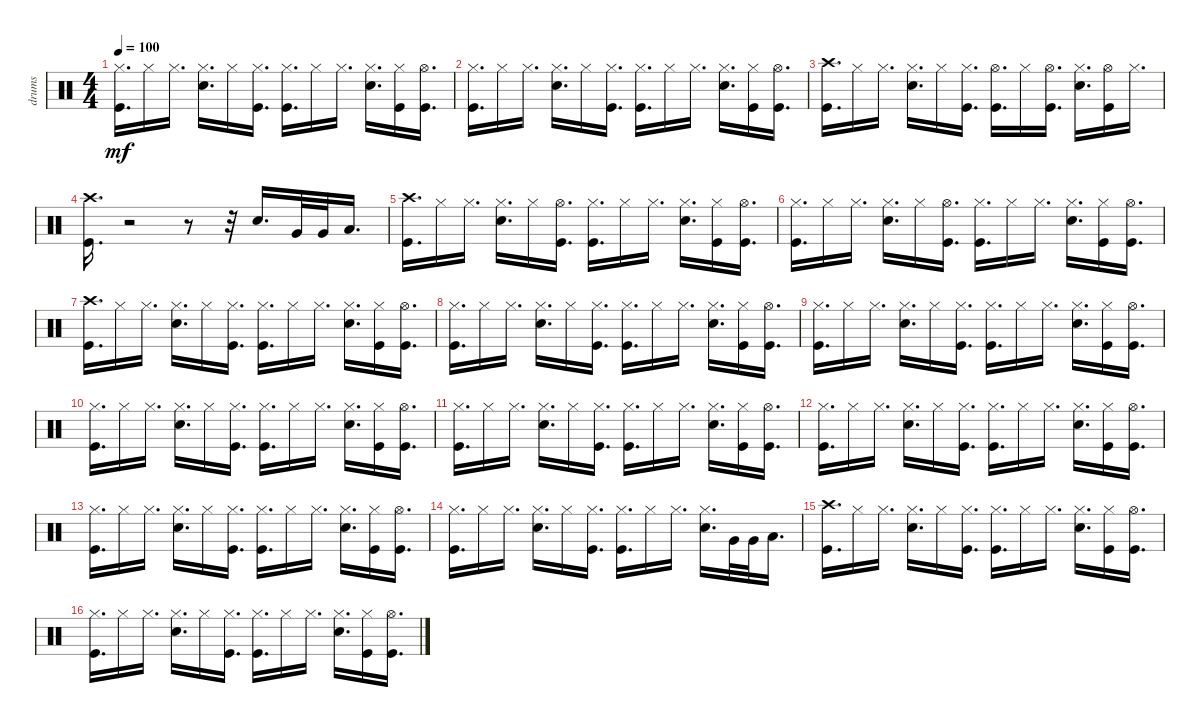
\track ("drums" "drums") {instrument percussion}
\staff {score}
\articulation defaults
\ts (4 4)
\tempo 100
\clef neutral
\ks c
("Hi-Hat (closed)" "Kick (hit)").16{d dy mf} "Hi-Hat (closed)".16 "Hi-Hat (closed)".16{d} ("Snare (hit) 2" "Hi-Hat (closed)").16{d} "Hi-Hat (closed)".16 ("Kick (hit)" "Hi-Hat (closed)").16{d} ("Kick (hit)" "Hi-Hat (closed)").16{d} "Hi-Hat (closed)".16 "Hi-Hat (closed)".16{d} ("Snare (hit) 2" "Hi-Hat (closed)").16{d} ("Kick (hit)" "Hi-Hat (closed)").16 ("Hi-Hat (open)" "Kick (hit)").16{d} |
("Hi-Hat (closed)" "Kick (hit)").16{d} "Hi-Hat (closed)".16 "Hi-Hat (closed)".16{d} ("Snare (hit) 2" "Hi-Hat (closed)").16{d} "Hi-Hat (closed)".16 ("Kick (hit)" "Hi-Hat (closed)").16{d} ("Kick (hit)" "Hi-Hat (closed)").16{d} "Hi-Hat (closed)".16 "Hi-Hat (closed)".16{d} ("Snare (hit) 2" "Hi-Hat (closed)").16{d} ("Kick (hit)" "Hi-Hat (closed)").16 ("Hi-Hat (open)" "Kick (hit)").16{d} |
("Crash high (hit)" "Kick (hit)").16{d} "Hi-Hat (closed)".16 "Hi-Hat (closed)".16{d} ("Snare (hit) 2" "Hi-Hat (closed)").16{d} "Hi-Hat (closed)".16 ("Kick (hit)" "Hi-Hat (closed)").16{d} ("Hi-Hat (open)" "Kick (hit)").16{d} "Hi-Hat (closed)".16 ("Hi-Hat (open)" "Kick (hit)").16{d} ("Snare (hit) 2" "Hi-Hat (closed)").16{d} ("Hi-Hat (open)" "Kick (hit)").16 "Hi-Hat (closed)".16{d} |
("Crash high (hit)" "Kick (hit)").16{d} r.2 r.8 r.32 "Snare (hit) 2".16{d} "Very Low Tom (hit)".32 "Very Low Tom (hit)".32 "Low Floor Tom (hit)".16{d} |
("Crash high (hit)" "Kick (hit)").16{d} "Hi-Hat (closed)".16 "Hi-Hat (closed)".16{d} ("Snare (hit) 2" "Hi-Hat (closed)").16{d} "Hi-Hat (closed)".16 ("Hi-Hat (open)" "Kick (hit)").16{d} ("Kick (hit)" "Hi-Hat (closed)").16{d} "Hi-Hat (closed)".16 "Hi-Hat (closed)".16{d} ("Snare (hit) 2" "Hi-Hat (closed)").16{d} ("Kick (hit)" "Hi-Hat (closed)").16 ("Hi-Hat (open)" "Kick (hit)").16{d} |
("Hi-Hat (closed)" "Kick (hit)").16{d} "Hi-Hat (closed)".16 "Hi-Hat (closed)".16{d} ("Snare (hit) 2" "Hi-Hat (closed)").16{d} "Hi-Hat (closed)".16 ("Hi-Hat (open)" "Kick (hit)").16{d} ("Kick (hit)" "Hi-Hat (closed)").16{d} "Hi-Hat (closed)".16 "Hi-Hat (closed)".16{d} ("Snare (hit) 2" "Hi-Hat (closed)").16{d} ("Kick (hit)" "Hi-Hat (closed)").16 ("Hi-Hat (open)" "Kick (hit)").16{d} |
("Crash high (hit)" "Kick (hit)").16{d} "Hi-Hat (closed)".16 "Hi-Hat (closed)".16{d} ("Snare (hit) 2" "Hi-Hat (closed)").16{d} "Hi-Hat (closed)".16 ("Kick (hit)" "Hi-Hat (closed)").16{d} ("Kick (hit)" "Hi-Hat (closed)").16{d} "Hi-Hat (closed)".16 "Hi-Hat (closed)".16{d} ("Snare (hit) 2" "Hi-Hat (closed)").16{d} ("Kick (hit)" "Hi-Hat (closed)").16 ("Hi-Hat (open)" "Kick (hit)").16{d} |
("Hi-Hat (closed)" "Kick (hit)").16{d} "Hi-Hat (closed)".16 "Hi-Hat (closed)".16{d} ("Snare (hit) 2" "Hi-Hat (closed)").16{d} "Hi-Hat (closed)".16 ("Kick (hit)" "Hi-Hat (closed)").16{d} ("Kick (hit)" "Hi-Hat (closed)").16{d} "Hi-Hat (closed)".16 "Hi-Hat (closed)".16{d} ("Snare (hit) 2" "Hi-Hat (closed)").16{d} ("Kick (hit)" "Hi-Hat (closed)").16 ("Hi-Hat (open)" "Kick (hit)").16{d} |
("Hi-Hat (closed)" "Kick (hit)").16{d} "Hi-Hat (closed)".16 "Hi-Hat (closed)".16{d} ("Snare (hit) 2" "Hi-Hat (closed)").16{d} "Hi-Hat (closed)".16 ("Kick (hit)" "Hi-Hat (closed)").16{d} ("Kick (hit)" "Hi-Hat (closed)").16{d} "Hi-Hat (closed)".16 "Hi-Hat (closed)".16{d} ("Snare (hit) 2" "Hi-Hat (closed)").16{d} ("Kick (hit)" "Hi-Hat (closed)").16 ("Hi-Hat (open)" "Kick (hit)").16{d} |
("Hi-Hat (closed)" "Kick (hit)").16{d} "Hi-Hat (closed)".16 "Hi-Hat (closed)".16{d} ("Snare (hit) 2" "Hi-Hat (closed)").16{d} "Hi-Hat (closed)".16 ("Kick (hit)" "Hi-Hat (closed)").16{d} ("Kick (hit)" "Hi-Hat (closed)").16{d} "Hi-Hat (closed)".16 "Hi-Hat (closed)".16{d} ("Snare (hit) 2" "Hi-Hat (closed)").16{d} ("Kick (hit)" "Hi-Hat (closed)").16 ("Hi-Hat (open)" "Kick (hit)").16{d} |
("Hi-Hat (closed)" "Kick (hit)").16{d} "Hi-Hat (closed)".16 "Hi-Hat (closed)".16{d} ("Snare (hit) 2" "Hi-Hat (closed)").16{d} "Hi-Hat (closed)".16 ("Kick (hit)" "Hi-Hat (closed)").16{d} ("Kick (hit)" "Hi-Hat (closed)").16{d} "Hi-Hat (closed)".16 "Hi-Hat (closed)".16{d} ("Snare (hit) 2" "Hi-Hat (closed)").16{d} ("Kick (hit)" "Hi-Hat (closed)").16 ("Hi-Hat (open)" "Kick (hit)").16{d} |
("Hi-Hat (closed)" "Kick (hit)").16{d} "Hi-Hat (closed)".16 "Hi-Hat (closed)".16{d} ("Snare (hit) 2" "Hi-Hat (closed)").16{d} "Hi-Hat (closed)".16 ("Kick (hit)" "Hi-Hat (closed)").16{d} ("Kick (hit)" "Hi-Hat (closed)").16{d} "Hi-Hat (closed)".16 "Hi-Hat (closed)".16{d} ("Snare (hit) 2" "Hi-Hat (closed)").16{d} ("Kick (hit)" "Hi-Hat (closed)").16 ("Hi-Hat (open)" "Kick (hit)").16{d} |
("Hi-Hat (closed)" "Kick (hit)").16{d} "Hi-Hat (closed)".16 "Hi-Hat (closed)".16{d} ("Snare (hit) 2" "Hi-Hat (closed)").16{d} "Hi-Hat (closed)".16 ("Kick (hit)" "Hi-Hat (closed)").16{d} ("Kick (hit)" "Hi-Hat (closed)").16{d} "Hi-Hat (closed)".16 "Hi-Hat (closed)".16{d} ("Snare (hit) 2" "Hi-Hat (closed)").16{d} ("Kick (hit)" "Hi-Hat (closed)").16 ("Hi-Hat (open)" "Kick (hit)").16{d} |
("Hi-Hat (closed)" "Kick (hit)").16{d} "Hi-Hat (closed)".16 "Hi-Hat (closed)".16{d} ("Snare (hit) 2" "Hi-Hat (closed)").16{d} "Hi-Hat (closed)".16 ("Kick (hit)" "Hi-Hat (closed)").16{d} ("Kick (hit)" "Hi-Hat (closed)").16{d} "Hi-Hat (closed)".16 "Hi-Hat (closed)".16{d} ("Snare (hit) 2" "Hi-Hat (closed)").16{d} "Very Low Tom (hit)".32 "Very Low Tom (hit)".32 "Low Floor Tom (hit)".16{d} |
("Crash high (hit)" "Kick (hit)").16{d} "Hi-Hat (closed)".16 "Hi-Hat (closed)".16{d} ("Snare (hit) 2" "Hi-Hat (closed)").16{d} "Hi-Hat (closed)".16 ("Kick (hit)" "Hi-Hat (closed)").16{d} ("Kick (hit)" "Hi-Hat (closed)").16{d} "Hi-Hat (closed)".16 "Hi-Hat (closed)".16{d} ("Snare (hit) 2" "Hi-Hat (closed)").16{d} ("Kick (hit)" "Hi-Hat (closed)").16 ("Hi-Hat (open)" "Kick (hit)").16{d} |
("Hi-Hat (closed)" "Kick (hit)").16{d} "Hi-Hat (closed)".16 "Hi-Hat (closed)".16{d} ("Snare (hit) 2" "Hi-Hat (closed)").16{d} "Hi-Hat (closed)".16 ("Kick (hit)" "Hi-Hat (closed)").16{d} ("Kick (hit)" "Hi-Hat (closed)").16{d} "Hi-Hat (closed)".16 "Hi-Hat (closed)".16{d} ("Snare (hit) 2" "Hi-Hat (closed)").16{d} ("Kick (hit)" "Hi-Hat (closed)").16 ("Hi-Hat (open)" "Kick (hit)").16{d}
